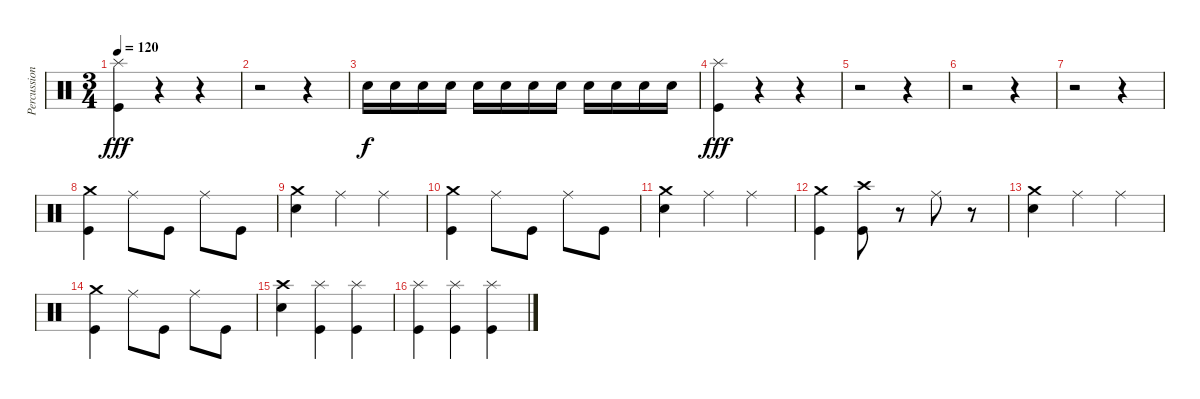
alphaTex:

\track ("Percussion" "Percussion") {instrument percussion}
\staff {score}
\articulation defaults
\ts (3 4)
\tempo 120
\clef neutral
\ks c
("Splash (hit)" "Kick (hit)").4{dy fff} r.4 r.4 |
r.2 r.4 |
"Electric Snare (hit)".16{dy f} "Electric Snare (hit)".16 "Electric Snare (hit)".16 "Electric Snare (hit)".16 "Electric Snare (hit)".16 "Electric Snare (hit)".16 "Electric Snare (hit)".16 "Electric Snare (hit)".16 "Electric Snare (hit)".16 "Electric Snare (hit)".16 "Electric Snare (hit)".16 "Electric Snare (hit)".16 |
("Splash (hit)" "Kick (hit)").4{dy fff} r.4 r.4 |
r.2 r.4 |
r.2 r.4 |
r.2 r.4 |
("Crash medium (hit)" "Kick (hit)").4 "Ride (middle)".8 "Kick (hit)".8 "Ride (middle)".8 "Kick (hit)".8 |
("Crash medium (hit)" "Electric Snare (hit)").4 "Ride (middle)".4 "Ride (middle)".4 |
("Crash medium (hit)" "Kick (hit)").4 "Ride (middle)".8 "Kick (hit)".8 "Ride (middle)".8 "Kick (hit)".8 |
("Crash medium (hit)" "Electric Snare (hit)").4 "Ride (middle)".4 "Ride (middle)".4 |
("Crash medium (hit)" "Kick (hit)").4 ("Crash high (hit)" "Kick (hit)").8 r.8 "Ride (middle)".8 r.8 |
("Crash medium (hit)" "Electric Snare (hit)").4 "Ride (middle)".4 "Ride (middle)".4 |
("Crash medium (hit)" "Kick (hit)").4 "Ride (middle)".8 "Kick (hit)".8 "Ride (middle)".8 "Kick (hit)".8 |
("Crash high (hit)" "Electric Snare (hit)").4 ("Splash (hit)" "Kick (hit)").4 ("Splash (hit)" "Kick (hit)").4 |
("Splash (hit)" "Kick (hit)").4 ("Splash (hit)" "Kick (hit)").4 ("Splash (hit)" "Kick (hit)").4
